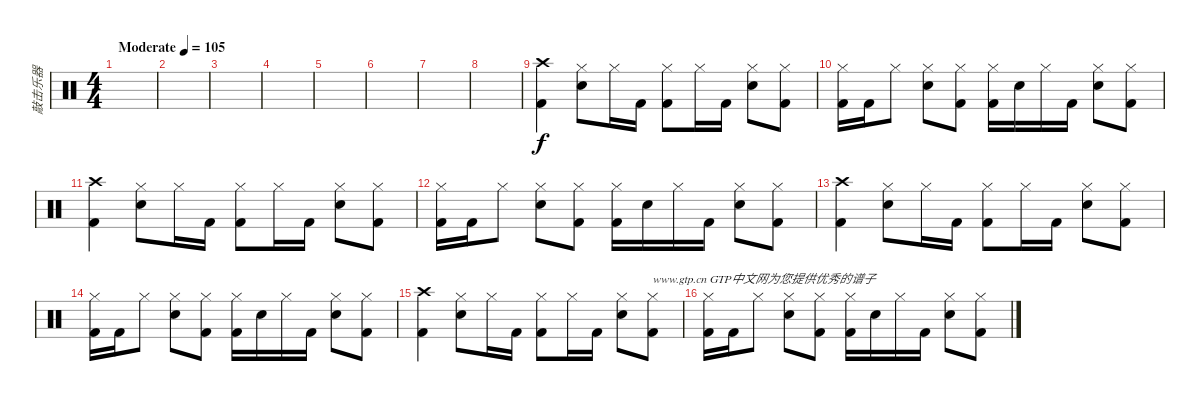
\track ("敲击乐器" "敲击乐器") {instrument percussion}
\staff {score}
\articulation defaults
\ts (4 4)
\tempo (105 "Moderate")
\clef neutral
\ks c
|
|
|
|
|
|
|
|
("Crash high (hit)" "Kick (hit) 2").4 ("Hi-Hat (closed)" "Snare (hit) 2").8 "Hi-Hat (closed)".16 "Kick (hit) 2".16 ("Hi-Hat (closed)" "Kick (hit) 2").8 "Hi-Hat (closed)".16 "Kick (hit) 2".16 ("Hi-Hat (closed)" "Snare (hit) 2").8 ("Hi-Hat (closed)" "Kick (hit) 2").8 |
("Hi-Hat (closed)" "Kick (hit) 2").16 "Kick (hit) 2".16 "Hi-Hat (closed)".8 ("Hi-Hat (closed)" "Snare (hit) 2").8 ("Hi-Hat (closed)" "Kick (hit) 2").8 ("Hi-Hat (closed)" "Kick (hit) 2").16 "Snare (hit) 2".16 "Hi-Hat (closed)".16 "Kick (hit) 2".16 ("Hi-Hat (closed)" "Snare (hit) 2").8 ("Hi-Hat (closed)" "Kick (hit) 2").8 |
("Crash high (hit)" "Kick (hit) 2").4 ("Hi-Hat (closed)" "Snare (hit) 2").8 "Hi-Hat (closed)".16 "Kick (hit) 2".16 ("Hi-Hat (closed)" "Kick (hit) 2").8 "Hi-Hat (closed)".16 "Kick (hit) 2".16 ("Hi-Hat (closed)" "Snare (hit) 2").8 ("Hi-Hat (closed)" "Kick (hit) 2").8 |
("Hi-Hat (closed)" "Kick (hit) 2").16 "Kick (hit) 2".16 "Hi-Hat (closed)".8 ("Hi-Hat (closed)" "Snare (hit) 2").8 ("Hi-Hat (closed)" "Kick (hit) 2").8 ("Hi-Hat (closed)" "Kick (hit) 2").16 "Snare (hit) 2".16 "Hi-Hat (closed)".16 "Kick (hit) 2".16 ("Hi-Hat (closed)" "Snare (hit) 2").8 ("Hi-Hat (closed)" "Kick (hit) 2").8 |
("Crash high (hit)" "Kick (hit) 2").4 ("Hi-Hat (closed)" "Snare (hit) 2").8 "Hi-Hat (closed)".16 "Kick (hit) 2".16 ("Hi-Hat (closed)" "Kick (hit) 2").8 "Hi-Hat (closed)".16 "Kick (hit) 2".16 ("Hi-Hat (closed)" "Snare (hit) 2").8 ("Hi-Hat (closed)" "Kick (hit) 2").8 |
("Hi-Hat (closed)" "Kick (hit) 2").16 "Kick (hit) 2".16 "Hi-Hat (closed)".8 ("Hi-Hat (closed)" "Snare (hit) 2").8 ("Hi-Hat (closed)" "Kick (hit) 2").8 ("Hi-Hat (closed)" "Kick (hit) 2").16 "Snare (hit) 2".16 "Hi-Hat (closed)".16 "Kick (hit) 2".16 ("Hi-Hat (closed)" "Snare (hit) 2").8 ("Hi-Hat (closed)" "Kick (hit) 2").8 |
("Crash high (hit)" "Kick (hit) 2").4 ("Hi-Hat (closed)" "Snare (hit) 2").8 "Hi-Hat (closed)".16 "Kick (hit) 2".16 ("Hi-Hat (closed)" "Kick (hit) 2").8 "Hi-Hat (closed)".16 "Kick (hit) 2".16 ("Hi-Hat (closed)" "Snare (hit) 2").8 ("Hi-Hat (closed)" "Kick (hit) 2").8{txt "www.gtp.cn GTP中文网为您提供优秀的谱子"} |
("Hi-Hat (closed)" "Kick (hit) 2").16 "Kick (hit) 2".16 "Hi-Hat (closed)".8 ("Hi-Hat (closed)" "Snare (hit) 2").8 ("Hi-Hat (closed)" "Kick (hit) 2").8 ("Hi-Hat (closed)" "Kick (hit) 2").16 "Snare (hit) 2".16 "Hi-Hat (closed)".16 "Kick (hit) 2".16 ("Hi-Hat (closed)" "Snare (hit) 2").8 ("Hi-Hat (closed)" "Kick (hit) 2").8
